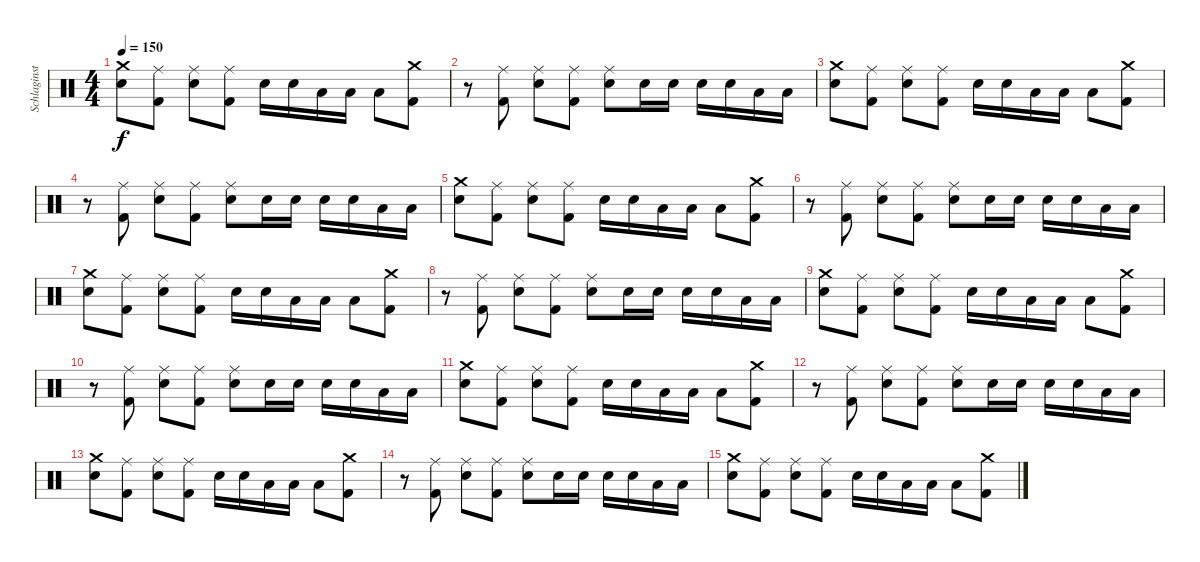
\track ("Schlaginstrumente - Auswahl" "Schlaginst") {instrument percussion}
\staff {score}
\articulation defaults
\ts (4 4)
\tempo 150
\clef neutral
\ks c
("Crash medium (hit)" "Snare (hit) 2").8{dy f} ("Ride (middle)" "Kick (hit) 2").8 ("Ride (middle)" "Snare (hit) 2").8 ("Ride (middle)" "Kick (hit) 2").8 "Snare (hit) 2".16 "Snare (hit) 2".16 "Low Tom (hit)".16 "Low Tom (hit)".16 "Low Floor Tom (hit)".8 ("Crash medium (hit)" "Kick (hit) 2").8 |
r.8 ("Ride (middle)" "Kick (hit) 2").8 ("Ride (middle)" "Snare (hit) 2").8 ("Ride (middle)" "Kick (hit) 2").8 ("Ride (middle)" "Snare (hit) 2").8 "Snare (hit) 2".16 "Snare (hit) 2".16 "Snare (hit) 2".16 "Snare (hit) 2".16 "Low Tom (hit)".16 "Low Tom (hit)".16 |
("Crash medium (hit)" "Snare (hit) 2").8 ("Ride (middle)" "Kick (hit) 2").8 ("Ride (middle)" "Snare (hit) 2").8 ("Ride (middle)" "Kick (hit) 2").8 "Snare (hit) 2".16 "Snare (hit) 2".16 "Low Tom (hit)".16 "Low Tom (hit)".16 "Low Floor Tom (hit)".8 ("Crash medium (hit)" "Kick (hit) 2").8 |
r.8 ("Ride (middle)" "Kick (hit) 2").8 ("Ride (middle)" "Snare (hit) 2").8 ("Ride (middle)" "Kick (hit) 2").8 ("Ride (middle)" "Snare (hit) 2").8 "Snare (hit) 2".16 "Snare (hit) 2".16 "Snare (hit) 2".16 "Snare (hit) 2".16 "Low Tom (hit)".16 "Low Tom (hit)".16 |
("Crash medium (hit)" "Snare (hit) 2").8 ("Ride (middle)" "Kick (hit) 2").8 ("Ride (middle)" "Snare (hit) 2").8 ("Ride (middle)" "Kick (hit) 2").8 "Snare (hit) 2".16 "Snare (hit) 2".16 "Low Tom (hit)".16 "Low Tom (hit)".16 "Low Floor Tom (hit)".8 ("Crash medium (hit)" "Kick (hit) 2").8 |
r.8 ("Ride (middle)" "Kick (hit) 2").8 ("Ride (middle)" "Snare (hit) 2").8 ("Ride (middle)" "Kick (hit) 2").8 ("Ride (middle)" "Snare (hit) 2").8 "Snare (hit) 2".16 "Snare (hit) 2".16 "Snare (hit) 2".16 "Snare (hit) 2".16 "Low Tom (hit)".16 "Low Tom (hit)".16 |
("Crash medium (hit)" "Snare (hit) 2").8 ("Ride (middle)" "Kick (hit) 2").8 ("Ride (middle)" "Snare (hit) 2").8 ("Ride (middle)" "Kick (hit) 2").8 "Snare (hit) 2".16 "Snare (hit) 2".16 "Low Tom (hit)".16 "Low Tom (hit)".16 "Low Floor Tom (hit)".8 ("Crash medium (hit)" "Kick (hit) 2").8 |
r.8 ("Ride (middle)" "Kick (hit) 2").8 ("Ride (middle)" "Snare (hit) 2").8 ("Ride (middle)" "Kick (hit) 2").8 ("Ride (middle)" "Snare (hit) 2").8 "Snare (hit) 2".16 "Snare (hit) 2".16 "Snare (hit) 2".16 "Snare (hit) 2".16 "Low Tom (hit)".16 "Low Tom (hit)".16 |
("Crash medium (hit)" "Snare (hit) 2").8 ("Ride (middle)" "Kick (hit) 2").8 ("Ride (middle)" "Snare (hit) 2").8 ("Ride (middle)" "Kick (hit) 2").8 "Snare (hit) 2".16 "Snare (hit) 2".16 "Low Tom (hit)".16 "Low Tom (hit)".16 "Low Floor Tom (hit)".8 ("Crash medium (hit)" "Kick (hit) 2").8 |
r.8 ("Ride (middle)" "Kick (hit) 2").8 ("Ride (middle)" "Snare (hit) 2").8 ("Ride (middle)" "Kick (hit) 2").8 ("Ride (middle)" "Snare (hit) 2").8 "Snare (hit) 2".16 "Snare (hit) 2".16 "Snare (hit) 2".16 "Snare (hit) 2".16 "Low Tom (hit)".16 "Low Tom (hit)".16 |
("Crash medium (hit)" "Snare (hit) 2").8 ("Ride (middle)" "Kick (hit) 2").8 ("Ride (middle)" "Snare (hit) 2").8 ("Ride (middle)" "Kick (hit) 2").8 "Snare (hit) 2".16 "Snare (hit) 2".16 "Low Tom (hit)".16 "Low Tom (hit)".16 "Low Floor Tom (hit)".8 ("Crash medium (hit)" "Kick (hit) 2").8 |
r.8 ("Ride (middle)" "Kick (hit) 2").8 ("Ride (middle)" "Snare (hit) 2").8 ("Ride (middle)" "Kick (hit) 2").8 ("Ride (middle)" "Snare (hit) 2").8 "Snare (hit) 2".16 "Snare (hit) 2".16 "Snare (hit) 2".16 "Snare (hit) 2".16 "Low Tom (hit)".16 "Low Tom (hit)".16 |
("Crash medium (hit)" "Snare (hit) 2").8 ("Ride (middle)" "Kick (hit) 2").8 ("Ride (middle)" "Snare (hit) 2").8 ("Ride (middle)" "Kick (hit) 2").8 "Snare (hit) 2".16 "Snare (hit) 2".16 "Low Tom (hit)".16 "Low Tom (hit)".16 "Low Floor Tom (hit)".8 ("Crash medium (hit)" "Kick (hit) 2").8 |
r.8 ("Ride (middle)" "Kick (hit) 2").8 ("Ride (middle)" "Snare (hit) 2").8 ("Ride (middle)" "Kick (hit) 2").8 ("Ride (middle)" "Snare (hit) 2").8 "Snare (hit) 2".16 "Snare (hit) 2".16 "Snare (hit) 2".16 "Snare (hit) 2".16 "Low Tom (hit)".16 "Low Tom (hit)".16 |
("Crash medium (hit)" "Snare (hit) 2").8 ("Ride (middle)" "Kick (hit) 2").8 ("Ride (middle)" "Snare (hit) 2").8 ("Ride (middle)" "Kick (hit) 2").8 "Snare (hit) 2".16 "Snare (hit) 2".16 "Low Tom (hit)".16 "Low Tom (hit)".16 "Low Floor Tom (hit)".8 ("Crash medium (hit)" "Kick (hit) 2").8
